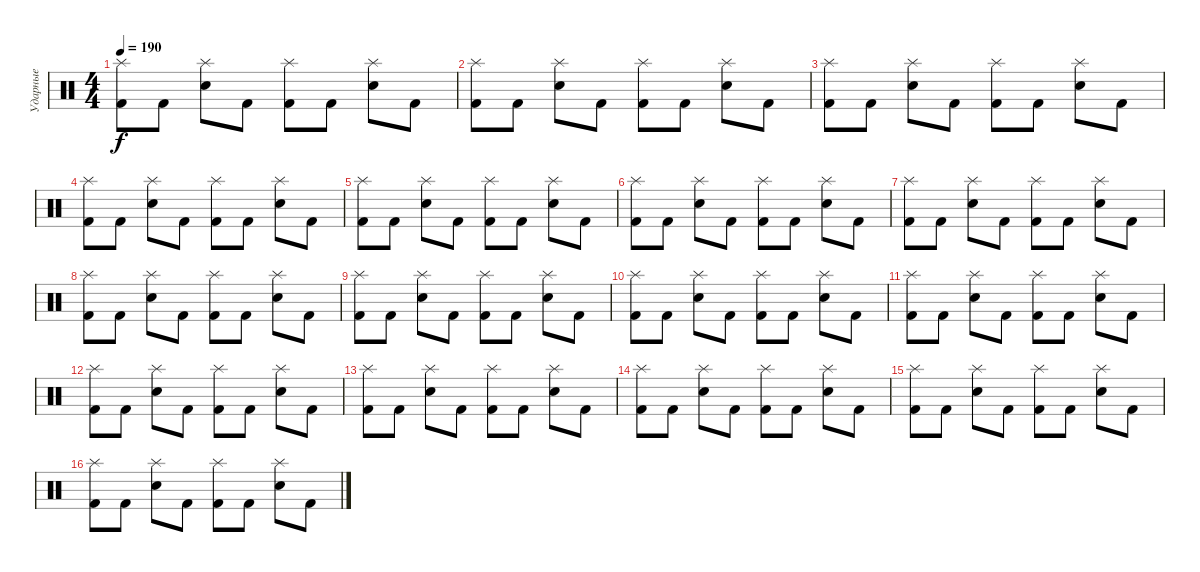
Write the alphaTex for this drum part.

\track ("Ударные" "Ударные") {instrument percussion}
\staff {score}
\articulation defaults
\ts (4 4)
\tempo 190
\clef neutral
\ks c
("Splash (hit)" "Kick (hit) 2").8{dy f} "Kick (hit) 2".8 ("Splash (hit)" "Electric Snare (hit)").8 "Kick (hit) 2".8 ("Splash (hit)" "Kick (hit) 2").8 "Kick (hit) 2".8 ("Splash (hit)" "Electric Snare (hit)").8 "Kick (hit) 2".8 |
("Splash (hit)" "Kick (hit) 2").8 "Kick (hit) 2".8 ("Splash (hit)" "Electric Snare (hit)").8 "Kick (hit) 2".8 ("Splash (hit)" "Kick (hit) 2").8 "Kick (hit) 2".8 ("Splash (hit)" "Electric Snare (hit)").8 "Kick (hit) 2".8 |
("Splash (hit)" "Kick (hit) 2").8 "Kick (hit) 2".8 ("Splash (hit)" "Electric Snare (hit)").8 "Kick (hit) 2".8 ("Splash (hit)" "Kick (hit) 2").8 "Kick (hit) 2".8 ("Splash (hit)" "Electric Snare (hit)").8 "Kick (hit) 2".8 |
("Splash (hit)" "Kick (hit) 2").8 "Kick (hit) 2".8 ("Splash (hit)" "Electric Snare (hit)").8 "Kick (hit) 2".8 ("Splash (hit)" "Kick (hit) 2").8 "Kick (hit) 2".8 ("Splash (hit)" "Electric Snare (hit)").8 "Kick (hit) 2".8 |
("Splash (hit)" "Kick (hit) 2").8 "Kick (hit) 2".8 ("Splash (hit)" "Electric Snare (hit)").8 "Kick (hit) 2".8 ("Splash (hit)" "Kick (hit) 2").8 "Kick (hit) 2".8 ("Splash (hit)" "Electric Snare (hit)").8 "Kick (hit) 2".8 |
("Splash (hit)" "Kick (hit) 2").8 "Kick (hit) 2".8 ("Splash (hit)" "Electric Snare (hit)").8 "Kick (hit) 2".8 ("Splash (hit)" "Kick (hit) 2").8 "Kick (hit) 2".8 ("Splash (hit)" "Electric Snare (hit)").8 "Kick (hit) 2".8 |
("Splash (hit)" "Kick (hit) 2").8 "Kick (hit) 2".8 ("Splash (hit)" "Electric Snare (hit)").8 "Kick (hit) 2".8 ("Splash (hit)" "Kick (hit) 2").8 "Kick (hit) 2".8 ("Splash (hit)" "Electric Snare (hit)").8 "Kick (hit) 2".8 |
("Splash (hit)" "Kick (hit) 2").8 "Kick (hit) 2".8 ("Splash (hit)" "Electric Snare (hit)").8 "Kick (hit) 2".8 ("Splash (hit)" "Kick (hit) 2").8 "Kick (hit) 2".8 ("Splash (hit)" "Electric Snare (hit)").8 "Kick (hit) 2".8 |
("Splash (hit)" "Kick (hit) 2").8 "Kick (hit) 2".8 ("Splash (hit)" "Electric Snare (hit)").8 "Kick (hit) 2".8 ("Splash (hit)" "Kick (hit) 2").8 "Kick (hit) 2".8 ("Splash (hit)" "Electric Snare (hit)").8 "Kick (hit) 2".8 |
("Splash (hit)" "Kick (hit) 2").8 "Kick (hit) 2".8 ("Splash (hit)" "Electric Snare (hit)").8 "Kick (hit) 2".8 ("Splash (hit)" "Kick (hit) 2").8 "Kick (hit) 2".8 ("Splash (hit)" "Electric Snare (hit)").8 "Kick (hit) 2".8 |
("Splash (hit)" "Kick (hit) 2").8 "Kick (hit) 2".8 ("Splash (hit)" "Electric Snare (hit)").8 "Kick (hit) 2".8 ("Splash (hit)" "Kick (hit) 2").8 "Kick (hit) 2".8 ("Splash (hit)" "Electric Snare (hit)").8 "Kick (hit) 2".8 |
("Splash (hit)" "Kick (hit) 2").8 "Kick (hit) 2".8 ("Splash (hit)" "Electric Snare (hit)").8 "Kick (hit) 2".8 ("Splash (hit)" "Kick (hit) 2").8 "Kick (hit) 2".8 ("Splash (hit)" "Electric Snare (hit)").8 "Kick (hit) 2".8 |
("Splash (hit)" "Kick (hit) 2").8 "Kick (hit) 2".8 ("Splash (hit)" "Electric Snare (hit)").8 "Kick (hit) 2".8 ("Splash (hit)" "Kick (hit) 2").8 "Kick (hit) 2".8 ("Splash (hit)" "Electric Snare (hit)").8 "Kick (hit) 2".8 |
("Splash (hit)" "Kick (hit) 2").8 "Kick (hit) 2".8 ("Splash (hit)" "Electric Snare (hit)").8 "Kick (hit) 2".8 ("Splash (hit)" "Kick (hit) 2").8 "Kick (hit) 2".8 ("Splash (hit)" "Electric Snare (hit)").8 "Kick (hit) 2".8 |
("Splash (hit)" "Kick (hit) 2").8 "Kick (hit) 2".8 ("Splash (hit)" "Electric Snare (hit)").8 "Kick (hit) 2".8 ("Splash (hit)" "Kick (hit) 2").8 "Kick (hit) 2".8 ("Splash (hit)" "Electric Snare (hit)").8 "Kick (hit) 2".8 |
("Splash (hit)" "Kick (hit) 2").8 "Kick (hit) 2".8 ("Splash (hit)" "Electric Snare (hit)").8 "Kick (hit) 2".8 ("Splash (hit)" "Kick (hit) 2").8 "Kick (hit) 2".8 ("Splash (hit)" "Electric Snare (hit)").8 "Kick (hit) 2".8
